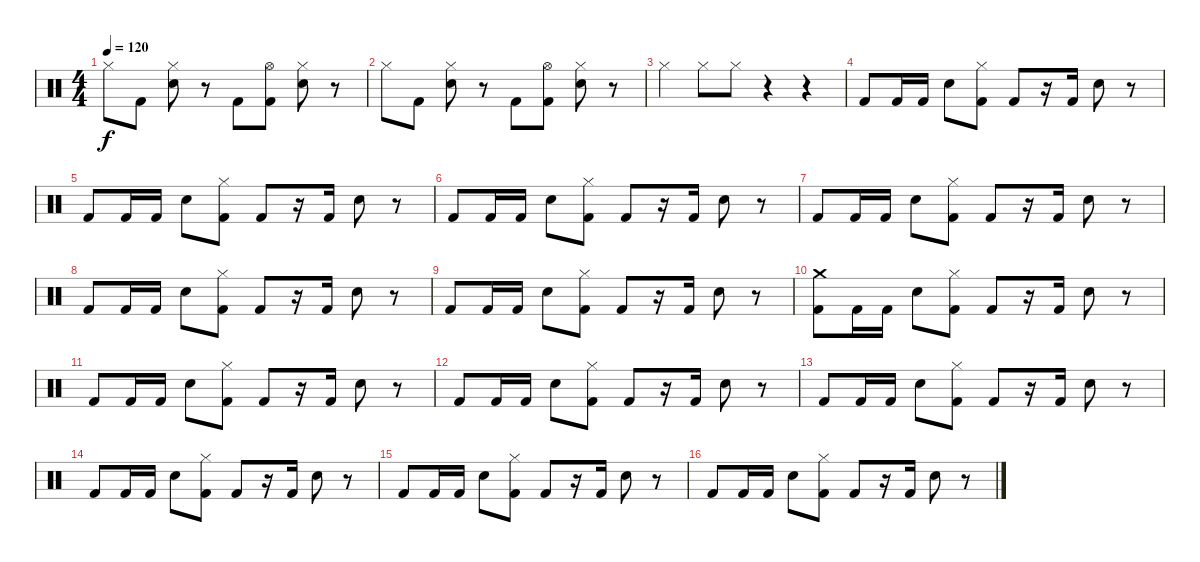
\track "" {instrument percussion}
\staff {score}
\articulation defaults
\ts (4 4)
\tempo 120
\clef neutral
\ks c "Hi-Hat (closed)".8{dy f} "Kick (hit) 2".8
("Hi-Hat (closed)" "Snare (hit) 2").8 r.8 "Kick (hit) 2".8 ("Hi-Hat (open)" "Kick (hit) 2").8 ("Hi-Hat (closed)" "Snare (hit) 2").8 r.8 |
"Hi-Hat (closed)".8 "Kick (hit) 2".8 ("Hi-Hat (closed)" "Snare (hit) 2").8 r.8 "Kick (hit) 2".8 ("Hi-Hat (open)" "Kick (hit) 2").8 ("Hi-Hat (closed)" "Snare (hit) 2").8 r.8 |
"Hi-Hat (closed)".4{volume 16} "Hi-Hat (closed)".8 "Hi-Hat (closed)".8 r.4 r.4 |
"Kick (hit) 2".8 "Kick (hit) 2".16 "Kick (hit) 2".16 "Electric Snare (hit)".8 ("Kick (hit) 2" "Hi-Hat (closed)").8 "Kick (hit) 2".8 r.16 "Kick (hit) 2".16 "Electric Snare (hit)".8 r.8 |
"Kick (hit) 2".8 "Kick (hit) 2".16 "Kick (hit) 2".16 "Electric Snare (hit)".8 ("Kick (hit) 2" "Hi-Hat (closed)").8 "Kick (hit) 2".8 r.16 "Kick (hit) 2".16 "Electric Snare (hit)".8 r.8 |
"Kick (hit) 2".8 "Kick (hit) 2".16 "Kick (hit) 2".16 "Electric Snare (hit)".8 ("Kick (hit) 2" "Hi-Hat (closed)").8 "Kick (hit) 2".8 r.16 "Kick (hit) 2".16 "Electric Snare (hit)".8 r.8 |
"Kick (hit) 2".8 "Kick (hit) 2".16 "Kick (hit) 2".16 "Electric Snare (hit)".8 ("Kick (hit) 2" "Hi-Hat (closed)").8 "Kick (hit) 2".8 r.16 "Kick (hit) 2".16 "Electric Snare (hit)".8 r.8 |
"Kick (hit) 2".8 "Kick (hit) 2".16 "Kick (hit) 2".16 "Electric Snare (hit)".8 ("Kick (hit) 2" "Hi-Hat (closed)").8 "Kick (hit) 2".8 r.16 "Kick (hit) 2".16 "Electric Snare (hit)".8 r.8 |
"Kick (hit) 2".8 "Kick (hit) 2".16 "Kick (hit) 2".16 "Electric Snare (hit)".8 ("Kick (hit) 2" "Hi-Hat (closed)").8 "Kick (hit) 2".8 r.16 "Kick (hit) 2".16 "Electric Snare (hit)".8 r.8 |
("Kick (hit) 2" "Crash medium (hit)").8 "Kick (hit) 2".16 "Kick (hit) 2".16 "Electric Snare (hit)".8 ("Kick (hit) 2" "Hi-Hat (closed)").8 "Kick (hit) 2".8 r.16 "Kick (hit) 2".16 "Electric Snare (hit)".8 r.8 |
"Kick (hit) 2".8 "Kick (hit) 2".16 "Kick (hit) 2".16 "Electric Snare (hit)".8 ("Kick (hit) 2" "Hi-Hat (closed)").8 "Kick (hit) 2".8 r.16 "Kick (hit) 2".16 "Electric Snare (hit)".8 r.8 |
"Kick (hit) 2".8 "Kick (hit) 2".16 "Kick (hit) 2".16 "Electric Snare (hit)".8 ("Kick (hit) 2" "Hi-Hat (closed)").8 "Kick (hit) 2".8 r.16 "Kick (hit) 2".16 "Electric Snare (hit)".8 r.8 |
"Kick (hit) 2".8 "Kick (hit) 2".16 "Kick (hit) 2".16 "Electric Snare (hit)".8 ("Kick (hit) 2" "Hi-Hat (closed)").8 "Kick (hit) 2".8 r.16 "Kick (hit) 2".16 "Electric Snare (hit)".8 r.8 |
"Kick (hit) 2".8 "Kick (hit) 2".16 "Kick (hit) 2".16 "Electric Snare (hit)".8 ("Kick (hit) 2" "Hi-Hat (closed)").8 "Kick (hit) 2".8 r.16 "Kick (hit) 2".16 "Electric Snare (hit)".8 r.8 |
"Kick (hit) 2".8 "Kick (hit) 2".16 "Kick (hit) 2".16 "Electric Snare (hit)".8 ("Kick (hit) 2" "Hi-Hat (closed)").8 "Kick (hit) 2".8 r.16 "Kick (hit) 2".16 "Electric Snare (hit)".8 r.8 |
"Kick (hit) 2".8 "Kick (hit) 2".16 "Kick (hit) 2".16 "Electric Snare (hit)".8 ("Kick (hit) 2" "Hi-Hat (closed)").8 "Kick (hit) 2".8 r.16 "Kick (hit) 2".16 "Electric Snare (hit)".8 r.8
